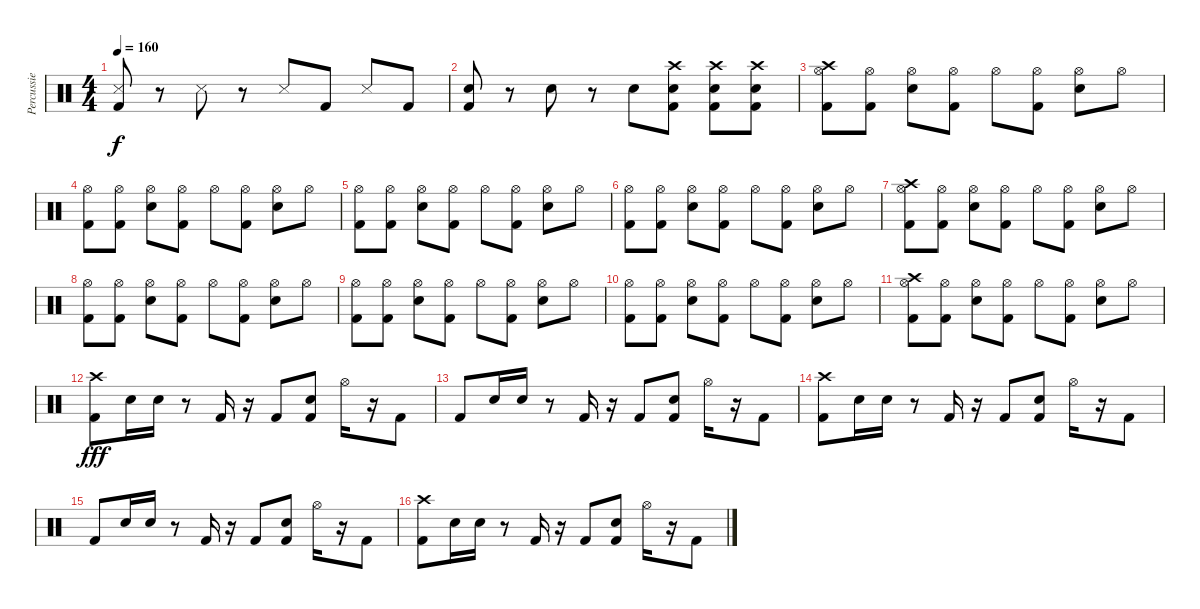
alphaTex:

\track ("Percussie" "Percussie") {instrument percussion}
\staff {score}
\articulation defaults
\ts (4 4)
\tempo 160
\clef neutral
\ks c
("Kick (hit) 2" "Metronome (hit)").8{dy f} r.8 "Metronome (hit)".8 r.8 "Metronome (hit)".8 "Kick (hit) 2".8 "Metronome (hit)".8 "Kick (hit) 2".8 |
("Kick (hit) 2" "Electric Snare (hit)").8 r.8 "Electric Snare (hit)".8 r.8 "Electric Snare (hit)".8 ("Kick (hit) 2" "Electric Snare (hit)" "Crash high (hit)").8 ("Kick (hit) 2" "Electric Snare (hit)" "Crash high (hit)").8 ("Kick (hit) 2" "Electric Snare (hit)" "Crash high (hit)").8 |
("Kick (hit) 2" "Crash high (hit)" "Hi-Hat (open)").8 ("Kick (hit) 2" "Hi-Hat (open)").8 ("Electric Snare (hit)" "Hi-Hat (open)").8 ("Kick (hit) 2" "Hi-Hat (open)").8 "Hi-Hat (open)".8 ("Kick (hit) 2" "Hi-Hat (open)").8 ("Electric Snare (hit)" "Hi-Hat (open)").8 "Hi-Hat (open)".8 |
("Kick (hit) 2" "Hi-Hat (open)").8 ("Kick (hit) 2" "Hi-Hat (open)").8 ("Electric Snare (hit)" "Hi-Hat (open)").8 ("Kick (hit) 2" "Hi-Hat (open)").8 "Hi-Hat (open)".8 ("Kick (hit) 2" "Hi-Hat (open)").8 ("Electric Snare (hit)" "Hi-Hat (open)").8 "Hi-Hat (open)".8 |
("Kick (hit) 2" "Hi-Hat (open)").8 ("Kick (hit) 2" "Hi-Hat (open)").8 ("Electric Snare (hit)" "Hi-Hat (open)").8 ("Kick (hit) 2" "Hi-Hat (open)").8 "Hi-Hat (open)".8 ("Kick (hit) 2" "Hi-Hat (open)").8 ("Electric Snare (hit)" "Hi-Hat (open)").8 "Hi-Hat (open)".8 |
("Kick (hit) 2" "Hi-Hat (open)").8 ("Kick (hit) 2" "Hi-Hat (open)").8 ("Electric Snare (hit)" "Hi-Hat (open)").8 ("Kick (hit) 2" "Hi-Hat (open)").8 "Hi-Hat (open)".8 ("Kick (hit) 2" "Hi-Hat (open)").8 ("Electric Snare (hit)" "Hi-Hat (open)").8 "Hi-Hat (open)".8 |
("Kick (hit) 2" "Crash high (hit)" "Hi-Hat (open)").8 ("Kick (hit) 2" "Hi-Hat (open)").8 ("Electric Snare (hit)" "Hi-Hat (open)").8 ("Kick (hit) 2" "Hi-Hat (open)").8 "Hi-Hat (open)".8 ("Kick (hit) 2" "Hi-Hat (open)").8 ("Electric Snare (hit)" "Hi-Hat (open)").8 "Hi-Hat (open)".8 |
("Kick (hit) 2" "Hi-Hat (open)").8 ("Kick (hit) 2" "Hi-Hat (open)").8 ("Electric Snare (hit)" "Hi-Hat (open)").8 ("Kick (hit) 2" "Hi-Hat (open)").8 "Hi-Hat (open)".8 ("Kick (hit) 2" "Hi-Hat (open)").8 ("Electric Snare (hit)" "Hi-Hat (open)").8 "Hi-Hat (open)".8 |
("Kick (hit) 2" "Hi-Hat (open)").8 ("Kick (hit) 2" "Hi-Hat (open)").8 ("Electric Snare (hit)" "Hi-Hat (open)").8 ("Kick (hit) 2" "Hi-Hat (open)").8 "Hi-Hat (open)".8 ("Kick (hit) 2" "Hi-Hat (open)").8 ("Electric Snare (hit)" "Hi-Hat (open)").8 "Hi-Hat (open)".8 |
("Kick (hit) 2" "Hi-Hat (open)").8 ("Kick (hit) 2" "Hi-Hat (open)").8 ("Electric Snare (hit)" "Hi-Hat (open)").8 ("Kick (hit) 2" "Hi-Hat (open)").8 "Hi-Hat (open)".8 ("Kick (hit) 2" "Hi-Hat (open)").8 ("Electric Snare (hit)" "Hi-Hat (open)").8 "Hi-Hat (open)".8 |
("Kick (hit) 2" "Crash high (hit)" "Hi-Hat (open)").8 ("Kick (hit) 2" "Hi-Hat (open)").8 ("Electric Snare (hit)" "Hi-Hat (open)").8 ("Kick (hit) 2" "Hi-Hat (open)").8 "Hi-Hat (open)".8 ("Kick (hit) 2" "Hi-Hat (open)").8 ("Electric Snare (hit)" "Hi-Hat (open)").8 "Hi-Hat (open)".8 |
("Kick (hit) 2" "Crash high (hit)").8{dy fff} "Electric Snare (hit)".16 "Electric Snare (hit)".16 r.8 "Kick (hit) 2".16 r.16 "Kick (hit) 2".8 ("Kick (hit) 2" "Electric Snare (hit)").8 "Hi-Hat (open)".16 r.16 "Kick (hit) 2".8 |
"Kick (hit) 2".8 "Electric Snare (hit)".16 "Electric Snare (hit)".16 r.8 "Kick (hit) 2".16 r.16 "Kick (hit) 2".8 ("Kick (hit) 2" "Electric Snare (hit)").8 "Hi-Hat (open)".16 r.16 "Kick (hit) 2".8 |
("Kick (hit) 2" "Crash high (hit)").8 "Electric Snare (hit)".16 "Electric Snare (hit)".16 r.8 "Kick (hit) 2".16 r.16 "Kick (hit) 2".8 ("Kick (hit) 2" "Electric Snare (hit)").8 "Hi-Hat (open)".16 r.16 "Kick (hit) 2".8 |
"Kick (hit) 2".8 "Electric Snare (hit)".16 "Electric Snare (hit)".16 r.8 "Kick (hit) 2".16 r.16 "Kick (hit) 2".8 ("Kick (hit) 2" "Electric Snare (hit)").8 "Hi-Hat (open)".16 r.16 "Kick (hit) 2".8 |
("Kick (hit) 2" "Crash high (hit)").8 "Electric Snare (hit)".16 "Electric Snare (hit)".16 r.8 "Kick (hit) 2".16 r.16 "Kick (hit) 2".8 ("Kick (hit) 2" "Electric Snare (hit)").8 "Hi-Hat (open)".16 r.16 "Kick (hit) 2".8
